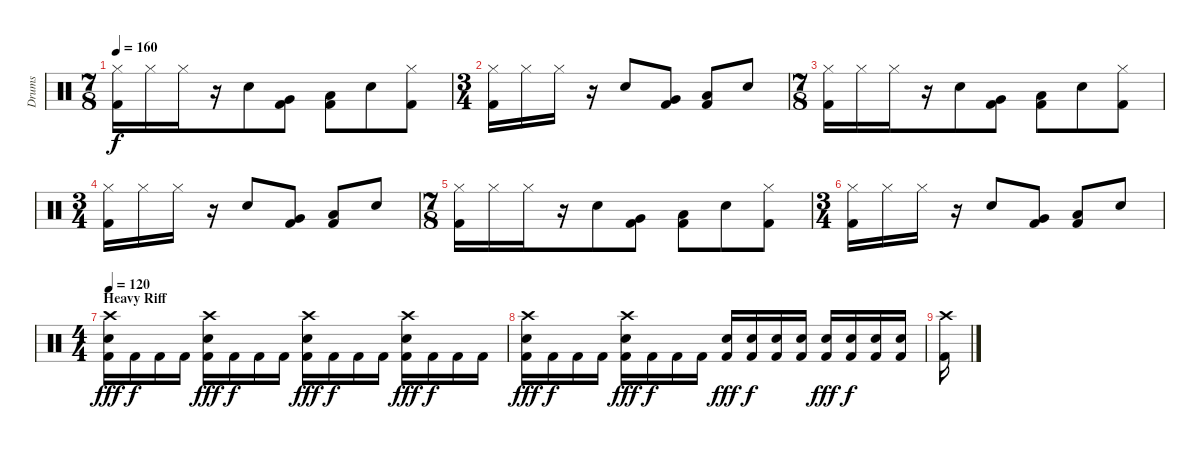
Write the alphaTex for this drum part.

\track ("Drums" "Drums") {instrument percussion}
\staff {score}
\articulation defaults
\ts (7 8)
\tempo 160
\clef neutral
\ks c
("Hi-Hat (closed)" "Kick (hit) 2").16{dy f} "Hi-Hat (closed)".16 "Hi-Hat (closed)".16 r.16 "Electric Snare (hit)".8 ("Very Low Tom (hit)" "Kick (hit) 2").8 ("Low Floor Tom (hit)" "Kick (hit) 2").8 "Electric Snare (hit)".8 ("Hi-Hat (closed)" "Kick (hit) 2").8 |
\ts (3 4)
("Hi-Hat (closed)" "Kick (hit) 2").16 "Hi-Hat (closed)".16 "Hi-Hat (closed)".16 r.16 "Electric Snare (hit)".8 ("Very Low Tom (hit)" "Kick (hit) 2").8 ("Low Floor Tom (hit)" "Kick (hit) 2").8 "Electric Snare (hit)".8 |
\ts (7 8)
("Hi-Hat (closed)" "Kick (hit) 2").16 "Hi-Hat (closed)".16 "Hi-Hat (closed)".16 r.16 "Electric Snare (hit)".8 ("Very Low Tom (hit)" "Kick (hit) 2").8 ("Low Floor Tom (hit)" "Kick (hit) 2").8 "Electric Snare (hit)".8 ("Hi-Hat (closed)" "Kick (hit) 2").8 |
\ts (3 4)
("Hi-Hat (closed)" "Kick (hit) 2").16 "Hi-Hat (closed)".16 "Hi-Hat (closed)".16 r.16 "Electric Snare (hit)".8 ("Very Low Tom (hit)" "Kick (hit) 2").8 ("Low Floor Tom (hit)" "Kick (hit) 2").8 "Electric Snare (hit)".8 |
\ts (7 8)
("Hi-Hat (closed)" "Kick (hit) 2").16 "Hi-Hat (closed)".16 "Hi-Hat (closed)".16 r.16 "Electric Snare (hit)".8 ("Very Low Tom (hit)" "Kick (hit) 2").8 ("Low Floor Tom (hit)" "Kick (hit) 2").8 "Electric Snare (hit)".8 ("Hi-Hat (closed)" "Kick (hit) 2").8 |
\ts (3 4)
("Hi-Hat (closed)" "Kick (hit) 2").16 "Hi-Hat (closed)".16 "Hi-Hat (closed)".16 r.16 "Electric Snare (hit)".8 ("Very Low Tom (hit)" "Kick (hit) 2").8 ("Low Floor Tom (hit)" "Kick (hit) 2").8 "Electric Snare (hit)".8 |
\ts (4 4)
\section ("" "Heavy Riff")
\tempo 120
("Crash high (hit)" "Electric Snare (hit)" "Kick (hit) 2").16{dy fff} "Kick (hit) 2".16{dy f} "Kick (hit) 2".16 "Kick (hit) 2".16 ("Crash high (hit)" "Electric Snare (hit)" "Kick (hit) 2").16{dy fff} "Kick (hit) 2".16{dy f} "Kick (hit) 2".16 "Kick (hit) 2".16 ("Crash high (hit)" "Electric Snare (hit)" "Kick (hit) 2").16{dy fff} "Kick (hit) 2".16{dy f} "Kick (hit) 2".16 "Kick (hit) 2".16 ("Crash high (hit)" "Electric Snare (hit)" "Kick (hit) 2").16{dy fff} "Kick (hit) 2".16{dy f} "Kick (hit) 2".16 "Kick (hit) 2".16 |
("Crash high (hit)" "Electric Snare (hit)" "Kick (hit) 2").16{dy fff} "Kick (hit) 2".16{dy f} "Kick (hit) 2".16 "Kick (hit) 2".16 ("Crash high (hit)" "Electric Snare (hit)" "Kick (hit) 2").16{dy fff} "Kick (hit) 2".16{dy f} "Kick (hit) 2".16 "Kick (hit) 2".16 ("Electric Snare (hit)" "Kick (hit) 2").16{dy fff} ("Electric Snare (hit)" "Kick (hit) 2").16{dy f} ("Electric Snare (hit)" "Kick (hit) 2").16 ("Electric Snare (hit)" "Kick (hit) 2").16 ("Electric Snare (hit)" "Kick (hit) 2").16{dy fff} ("Electric Snare (hit)" "Kick (hit) 2").16{dy f} ("Electric Snare (hit)" "Kick (hit) 2").16 ("Electric Snare (hit)" "Kick (hit) 2").16 |
("Crash high (hit)" "Kick (hit) 2").16
